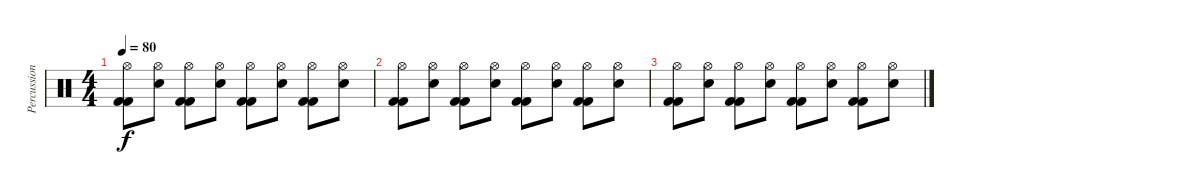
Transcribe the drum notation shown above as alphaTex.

\track ("Percussion" "Percussion") {instrument percussion}
\staff {score}
\articulation defaults
\ts (4 4)
\tempo 80
\clef neutral
\ks c
("Hi-Hat (open)" "Kick (hit) 2" "Kick (hit) 2").8{dy f} ("Hi-Hat (open)" "Electric Snare (hit)").8 ("Hi-Hat (open)" "Kick (hit) 2" "Kick (hit) 2").8 ("Hi-Hat (open)" "Electric Snare (hit)").8 ("Hi-Hat (open)" "Kick (hit) 2" "Kick (hit) 2").8 ("Hi-Hat (open)" "Electric Snare (hit)").8 ("Hi-Hat (open)" "Kick (hit) 2" "Kick (hit) 2").8 ("Hi-Hat (open)" "Electric Snare (hit)").8 |
("Hi-Hat (open)" "Kick (hit) 2" "Kick (hit) 2").8 ("Hi-Hat (open)" "Electric Snare (hit)").8 ("Hi-Hat (open)" "Kick (hit) 2" "Kick (hit) 2").8 ("Hi-Hat (open)" "Electric Snare (hit)").8 ("Hi-Hat (open)" "Kick (hit) 2" "Kick (hit) 2").8 ("Hi-Hat (open)" "Electric Snare (hit)").8 ("Hi-Hat (open)" "Kick (hit) 2" "Kick (hit) 2").8 ("Hi-Hat (open)" "Electric Snare (hit)").8 |
("Hi-Hat (open)" "Kick (hit) 2" "Kick (hit) 2").8 ("Hi-Hat (open)" "Electric Snare (hit)").8 ("Hi-Hat (open)" "Kick (hit) 2" "Kick (hit) 2").8 ("Hi-Hat (open)" "Electric Snare (hit)").8 ("Hi-Hat (open)" "Kick (hit) 2" "Kick (hit) 2").8 ("Hi-Hat (open)" "Electric Snare (hit)").8 ("Hi-Hat (open)" "Kick (hit) 2" "Kick (hit) 2").8 ("Hi-Hat (open)" "Electric Snare (hit)").8
